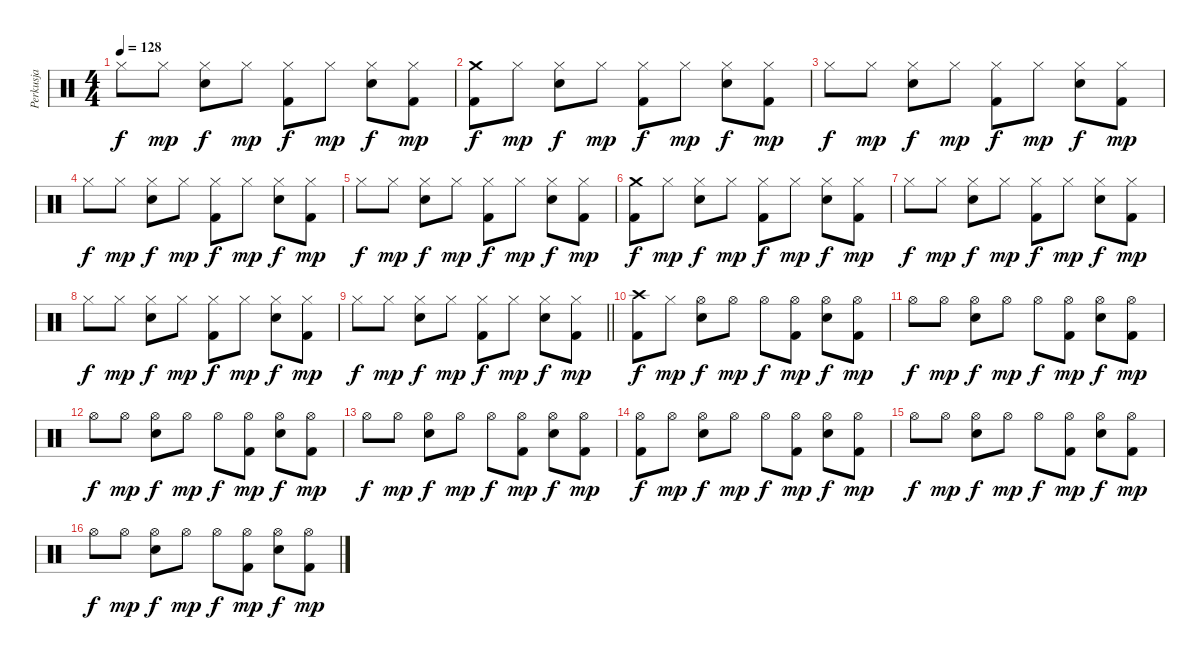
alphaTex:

\track ("Perkusja" "Perkusja") {instrument percussion}
\staff {score}
\articulation defaults
\ts (4 4)
\tempo 128
\clef neutral
\ks c "Hi-Hat (closed)".8{dy f} "Hi-Hat (closed)".8{dy mp}
("Hi-Hat (closed)" "Electric Snare (hit)").8{dy f} "Hi-Hat (closed)".8{dy mp} ("Hi-Hat (closed)" "Kick (hit) 2").8{dy f} "Hi-Hat (closed)".8{dy mp} ("Hi-Hat (closed)" "Electric Snare (hit)").8{dy f} ("Hi-Hat (closed)" "Kick (hit) 2").8{dy mp} |
("Crash medium (hit)" "Kick (hit) 2").8{dy f} "Hi-Hat (closed)".8{dy mp} ("Hi-Hat (closed)" "Electric Snare (hit)").8{dy f} "Hi-Hat (closed)".8{dy mp} ("Hi-Hat (closed)" "Kick (hit) 2").8{dy f} "Hi-Hat (closed)".8{dy mp} ("Hi-Hat (closed)" "Electric Snare (hit)").8{dy f} ("Hi-Hat (closed)" "Kick (hit) 2").8{dy mp} |
"Hi-Hat (closed)".8{dy f} "Hi-Hat (closed)".8{dy mp} ("Hi-Hat (closed)" "Electric Snare (hit)").8{dy f} "Hi-Hat (closed)".8{dy mp} ("Hi-Hat (closed)" "Kick (hit) 2").8{dy f} "Hi-Hat (closed)".8{dy mp} ("Hi-Hat (closed)" "Electric Snare (hit)").8{dy f} ("Hi-Hat (closed)" "Kick (hit) 2").8{dy mp} |
"Hi-Hat (closed)".8{dy f} "Hi-Hat (closed)".8{dy mp} ("Hi-Hat (closed)" "Electric Snare (hit)").8{dy f} "Hi-Hat (closed)".8{dy mp} ("Hi-Hat (closed)" "Kick (hit) 2").8{dy f} "Hi-Hat (closed)".8{dy mp} ("Hi-Hat (closed)" "Electric Snare (hit)").8{dy f} ("Hi-Hat (closed)" "Kick (hit) 2").8{dy mp} |
"Hi-Hat (closed)".8{dy f} "Hi-Hat (closed)".8{dy mp} ("Hi-Hat (closed)" "Electric Snare (hit)").8{dy f} "Hi-Hat (closed)".8{dy mp} ("Hi-Hat (closed)" "Kick (hit) 2").8{dy f} "Hi-Hat (closed)".8{dy mp} ("Hi-Hat (closed)" "Electric Snare (hit)").8{dy f} ("Hi-Hat (closed)" "Kick (hit) 2").8{dy mp} |
("Crash medium (hit)" "Kick (hit) 2").8{dy f} "Hi-Hat (closed)".8{dy mp} ("Hi-Hat (closed)" "Electric Snare (hit)").8{dy f} "Hi-Hat (closed)".8{dy mp} ("Hi-Hat (closed)" "Kick (hit) 2").8{dy f} "Hi-Hat (closed)".8{dy mp} ("Hi-Hat (closed)" "Electric Snare (hit)").8{dy f} ("Hi-Hat (closed)" "Kick (hit) 2").8{dy mp} |
"Hi-Hat (closed)".8{dy f} "Hi-Hat (closed)".8{dy mp} ("Hi-Hat (closed)" "Electric Snare (hit)").8{dy f} "Hi-Hat (closed)".8{dy mp} ("Hi-Hat (closed)" "Kick (hit) 2").8{dy f} "Hi-Hat (closed)".8{dy mp} ("Hi-Hat (closed)" "Electric Snare (hit)").8{dy f} ("Hi-Hat (closed)" "Kick (hit) 2").8{dy mp} |
"Hi-Hat (closed)".8{dy f} "Hi-Hat (closed)".8{dy mp} ("Hi-Hat (closed)" "Electric Snare (hit)").8{dy f} "Hi-Hat (closed)".8{dy mp} ("Hi-Hat (closed)" "Kick (hit) 2").8{dy f} "Hi-Hat (closed)".8{dy mp} ("Hi-Hat (closed)" "Electric Snare (hit)").8{dy f} ("Hi-Hat (closed)" "Kick (hit) 2").8{dy mp} |
\barLineRight lightlight "Hi-Hat (closed)".8{dy f} "Hi-Hat (closed)".8{dy mp}
("Hi-Hat (closed)" "Electric Snare (hit)").8{dy f} "Hi-Hat (closed)".8{dy mp} ("Hi-Hat (closed)" "Kick (hit) 2").8{dy f} "Hi-Hat (closed)".8{dy mp} ("Hi-Hat (closed)" "Electric Snare (hit)").8{dy f} ("Hi-Hat (closed)" "Kick (hit) 2").8{dy mp} |
("Crash high (hit)" "Kick (hit) 2").8{dy f} "Hi-Hat (closed)".8{dy mp} ("Hi-Hat (open)" "Electric Snare (hit)").8{dy f} "Hi-Hat (open)".8{dy mp} "Hi-Hat (open)".8{dy f} ("Hi-Hat (open)" "Kick (hit) 2").8{dy mp} ("Hi-Hat (open)" "Electric Snare (hit)").8{dy f} ("Hi-Hat (open)" "Kick (hit) 2").8{dy mp} |
"Hi-Hat (open)".8{dy f} "Hi-Hat (open)".8{dy mp} ("Hi-Hat (open)" "Electric Snare (hit)").8{dy f} "Hi-Hat (open)".8{dy mp} "Hi-Hat (open)".8{dy f} ("Hi-Hat (open)" "Kick (hit) 2").8{dy mp} ("Hi-Hat (open)" "Electric Snare (hit)").8{dy f} ("Hi-Hat (open)" "Kick (hit) 2").8{dy mp} |
"Hi-Hat (open)".8{dy f} "Hi-Hat (open)".8{dy mp} ("Hi-Hat (open)" "Electric Snare (hit)").8{dy f} "Hi-Hat (open)".8{dy mp} "Hi-Hat (open)".8{dy f} ("Hi-Hat (open)" "Kick (hit) 2").8{dy mp} ("Hi-Hat (open)" "Electric Snare (hit)").8{dy f} ("Hi-Hat (open)" "Kick (hit) 2").8{dy mp} |
"Hi-Hat (open)".8{dy f} "Hi-Hat (open)".8{dy mp} ("Hi-Hat (open)" "Electric Snare (hit)").8{dy f} "Hi-Hat (open)".8{dy mp} "Hi-Hat (open)".8{dy f} ("Hi-Hat (open)" "Kick (hit) 2").8{dy mp} ("Hi-Hat (open)" "Electric Snare (hit)").8{dy f} ("Hi-Hat (open)" "Kick (hit) 2").8{dy mp} |
("Hi-Hat (open)" "Kick (hit) 2").8{dy f} "Hi-Hat (open)".8{dy mp} ("Hi-Hat (open)" "Electric Snare (hit)").8{dy f} "Hi-Hat (open)".8{dy mp} "Hi-Hat (open)".8{dy f} ("Hi-Hat (open)" "Kick (hit) 2").8{dy mp} ("Hi-Hat (open)" "Electric Snare (hit)").8{dy f} ("Hi-Hat (open)" "Kick (hit) 2").8{dy mp} |
"Hi-Hat (open)".8{dy f} "Hi-Hat (open)".8{dy mp} ("Hi-Hat (open)" "Electric Snare (hit)").8{dy f} "Hi-Hat (open)".8{dy mp} "Hi-Hat (open)".8{dy f} ("Hi-Hat (open)" "Kick (hit) 2").8{dy mp} ("Hi-Hat (open)" "Electric Snare (hit)").8{dy f} ("Hi-Hat (open)" "Kick (hit) 2").8{dy mp} |
"Hi-Hat (open)".8{dy f} "Hi-Hat (open)".8{dy mp} ("Hi-Hat (open)" "Electric Snare (hit)").8{dy f} "Hi-Hat (open)".8{dy mp} "Hi-Hat (open)".8{dy f} ("Hi-Hat (open)" "Kick (hit) 2").8{dy mp} ("Hi-Hat (open)" "Electric Snare (hit)").8{dy f} ("Hi-Hat (open)" "Kick (hit) 2").8{dy mp}
